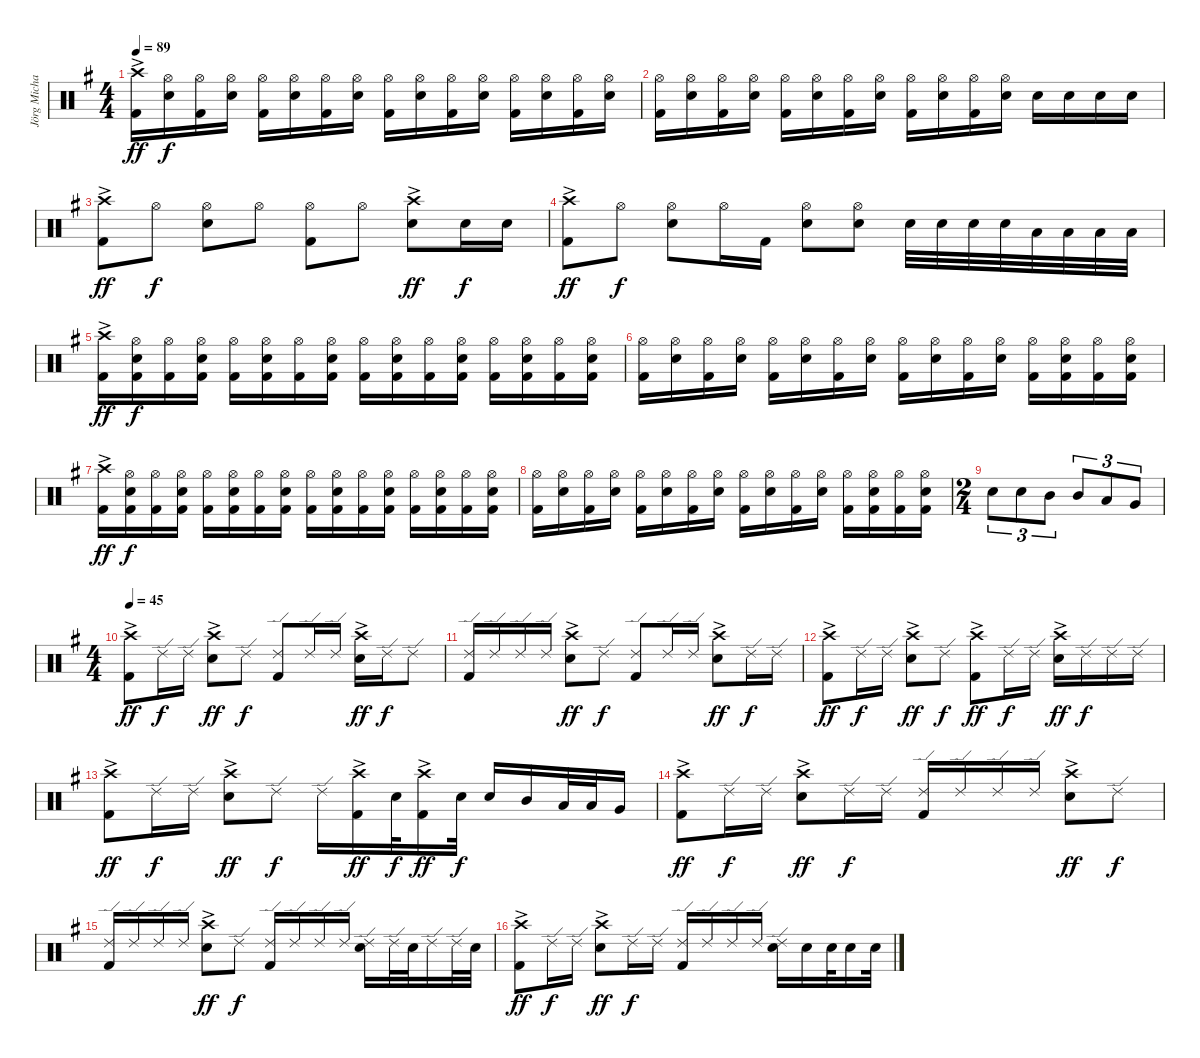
\track ("Jörg Michael" "Jörg Micha") {instrument percussion}
\staff {score}
\articulation defaults
\ts (4 4)
\tempo 89
\clef neutral
\ks g
("Crash high (hit)"{ac} "Kick (hit) 2"{ac}).16{dy ff} ("Hi-Hat (open)" "Electric Snare (hit)").16{dy f} ("Hi-Hat (open)" "Kick (hit) 2").16 ("Hi-Hat (open)" "Electric Snare (hit)").16 ("Hi-Hat (open)" "Kick (hit) 2").16 ("Hi-Hat (open)" "Electric Snare (hit)").16 ("Hi-Hat (open)" "Kick (hit) 2").16 ("Hi-Hat (open)" "Electric Snare (hit)").16 ("Hi-Hat (open)" "Kick (hit) 2").16 ("Hi-Hat (open)" "Electric Snare (hit)").16 ("Hi-Hat (open)" "Kick (hit) 2").16 ("Hi-Hat (open)" "Electric Snare (hit)").16 ("Hi-Hat (open)" "Kick (hit) 2").16 ("Hi-Hat (open)" "Electric Snare (hit)").16 ("Hi-Hat (open)" "Kick (hit) 2").16 ("Hi-Hat (open)" "Electric Snare (hit)").16 |
("Hi-Hat (open)" "Kick (hit) 2").16 ("Hi-Hat (open)" "Electric Snare (hit)").16 ("Hi-Hat (open)" "Kick (hit) 2").16 ("Hi-Hat (open)" "Electric Snare (hit)").16 ("Hi-Hat (open)" "Kick (hit) 2").16 ("Hi-Hat (open)" "Electric Snare (hit)").16 ("Hi-Hat (open)" "Kick (hit) 2").16 ("Hi-Hat (open)" "Electric Snare (hit)").16 ("Hi-Hat (open)" "Kick (hit) 2").16 ("Hi-Hat (open)" "Electric Snare (hit)").16 ("Hi-Hat (open)" "Kick (hit) 2").16 ("Hi-Hat (open)" "Electric Snare (hit)").16 "Electric Snare (hit)".16 "Electric Snare (hit)".16 "Electric Snare (hit)".16 "Electric Snare (hit)".16 |
("Crash high (hit)"{ac} "Kick (hit) 2"{ac}).8{dy ff} "Hi-Hat (open)".8{dy f} ("Hi-Hat (open)" "Electric Snare (hit)").8 "Hi-Hat (open)".8 ("Hi-Hat (open)" "Kick (hit) 2").8 "Hi-Hat (open)".8 ("Crash high (hit)"{ac} "Electric Snare (hit)"{ac}).8{dy ff} "Electric Snare (hit)".16{dy f} "Electric Snare (hit)".16 |
("Crash high (hit)"{ac} "Kick (hit) 2"{ac}).8{dy ff} "Hi-Hat (open)".8{dy f} ("Hi-Hat (open)" "Electric Snare (hit)").8 "Hi-Hat (open)".16 "Kick (hit) 2".16 ("Hi-Hat (open)" "Electric Snare (hit)").8 ("Hi-Hat (open)" "Electric Snare (hit)").8 "Electric Snare (hit)".32 "Electric Snare (hit)".32 "Electric Snare (hit)".32 "Electric Snare (hit)".32 "Low Tom (hit)".32 "Low Tom (hit)".32 "Low Tom (hit)".32 "Low Tom (hit)".32 |
("Crash high (hit)"{ac} "Kick (hit) 2"{ac}).16{dy ff} ("Hi-Hat (open)" "Electric Snare (hit)" "Kick (hit) 2").16{dy f} ("Hi-Hat (open)" "Kick (hit) 2").16 ("Hi-Hat (open)" "Electric Snare (hit)" "Kick (hit) 2").16 ("Hi-Hat (open)" "Kick (hit) 2").16 ("Hi-Hat (open)" "Electric Snare (hit)" "Kick (hit) 2").16 ("Hi-Hat (open)" "Kick (hit) 2").16 ("Hi-Hat (open)" "Electric Snare (hit)" "Kick (hit) 2").16 ("Hi-Hat (open)" "Kick (hit) 2").16 ("Hi-Hat (open)" "Electric Snare (hit)" "Kick (hit) 2").16 ("Hi-Hat (open)" "Kick (hit) 2").16 ("Hi-Hat (open)" "Electric Snare (hit)" "Kick (hit) 2").16 ("Hi-Hat (open)" "Kick (hit) 2").16 ("Hi-Hat (open)" "Electric Snare (hit)" "Kick (hit) 2").16 ("Hi-Hat (open)" "Kick (hit) 2").16 ("Hi-Hat (open)" "Electric Snare (hit)" "Kick (hit) 2").16 |
("Hi-Hat (open)" "Kick (hit) 2").16 ("Hi-Hat (open)" "Electric Snare (hit)").16 ("Hi-Hat (open)" "Kick (hit) 2").16 ("Hi-Hat (open)" "Electric Snare (hit)").16 ("Hi-Hat (open)" "Kick (hit) 2").16 ("Hi-Hat (open)" "Electric Snare (hit)").16 ("Hi-Hat (open)" "Kick (hit) 2").16 ("Hi-Hat (open)" "Electric Snare (hit)").16 ("Hi-Hat (open)" "Kick (hit) 2").16 ("Hi-Hat (open)" "Electric Snare (hit)").16 ("Hi-Hat (open)" "Kick (hit) 2").16 ("Hi-Hat (open)" "Electric Snare (hit)").16 ("Hi-Hat (open)" "Kick (hit) 2").16 ("Hi-Hat (open)" "Kick (hit) 2" "Electric Snare (hit)").16 ("Hi-Hat (open)" "Kick (hit) 2").16 ("Hi-Hat (open)" "Kick (hit) 2" "Electric Snare (hit)").16 |
("Crash high (hit)"{ac} "Kick (hit) 2"{ac}).16{dy ff} ("Hi-Hat (open)" "Electric Snare (hit)" "Kick (hit) 2").16{dy f} ("Hi-Hat (open)" "Kick (hit) 2").16 ("Hi-Hat (open)" "Electric Snare (hit)" "Kick (hit) 2").16 ("Hi-Hat (open)" "Kick (hit) 2").16 ("Hi-Hat (open)" "Electric Snare (hit)" "Kick (hit) 2").16 ("Hi-Hat (open)" "Kick (hit) 2").16 ("Hi-Hat (open)" "Electric Snare (hit)" "Kick (hit) 2").16 ("Hi-Hat (open)" "Kick (hit) 2").16 ("Hi-Hat (open)" "Electric Snare (hit)" "Kick (hit) 2").16 ("Hi-Hat (open)" "Kick (hit) 2").16 ("Hi-Hat (open)" "Electric Snare (hit)" "Kick (hit) 2").16 ("Hi-Hat (open)" "Kick (hit) 2").16 ("Hi-Hat (open)" "Electric Snare (hit)" "Kick (hit) 2").16 ("Hi-Hat (open)" "Kick (hit) 2").16 ("Hi-Hat (open)" "Electric Snare (hit)" "Kick (hit) 2").16 |
("Hi-Hat (open)" "Kick (hit) 2").16 ("Hi-Hat (open)" "Electric Snare (hit)").16 ("Hi-Hat (open)" "Kick (hit) 2").16 ("Hi-Hat (open)" "Electric Snare (hit)").16 ("Hi-Hat (open)" "Kick (hit) 2").16 ("Hi-Hat (open)" "Electric Snare (hit)").16 ("Hi-Hat (open)" "Kick (hit) 2").16 ("Hi-Hat (open)" "Electric Snare (hit)").16 ("Hi-Hat (open)" "Kick (hit) 2").16 ("Hi-Hat (open)" "Electric Snare (hit)").16 ("Hi-Hat (open)" "Kick (hit) 2").16 ("Hi-Hat (open)" "Electric Snare (hit)").16 ("Hi-Hat (open)" "Kick (hit) 2").16 ("Hi-Hat (open)" "Kick (hit) 2" "Electric Snare (hit)").16 ("Hi-Hat (open)" "Kick (hit) 2").16 ("Hi-Hat (open)" "Kick (hit) 2" "Electric Snare (hit)").16 |
\ts (2 4)
"Electric Snare (hit)".8{tu (3 2)} "Electric Snare (hit)".8{tu (3 2)} "Mid Tom (hit)".8{tu (3 2)} "Mid Tom (hit)".8{tu (3 2)} "Low Tom (hit)".8{tu (3 2)} "Very Low Tom (hit)".8{tu (3 2)} |
\ts (4 4)
\tempo 45
("Crash high (hit)"{ac} "Kick (hit) 2"{ac}).8{dy ff} "Ride (edge) 2".16{dy f} "Ride (edge) 2".16 ("Electric Snare (hit)" "Crash high (hit)"{ac}).8{dy ff} "Ride (edge) 2".8{dy f} ("Ride (edge) 2" "Kick (hit) 2").8 "Ride (edge) 2".16 "Ride (edge) 2".16 ("Crash high (hit)"{ac} "Electric Snare (hit)"{ac}).16{dy ff} "Ride (edge) 2".16{dy f} "Ride (edge) 2".8 |
("Ride (edge) 2" "Kick (hit) 2").16 "Ride (edge) 2".16 "Ride (edge) 2".16 "Ride (edge) 2".16 ("Crash high (hit)"{ac} "Electric Snare (hit)"{ac}).8{dy ff} "Ride (edge) 2".8{dy f} ("Ride (edge) 2" "Kick (hit) 2").8 "Ride (edge) 2".16 "Ride (edge) 2".16 ("Crash high (hit)"{ac} "Electric Snare (hit)"{ac}).8{dy ff} "Ride (edge) 2".16{dy f} "Ride (edge) 2".16 |
("Crash high (hit)"{ac} "Kick (hit) 2"{ac}).8{dy ff} "Ride (edge) 2".16{dy f} "Ride (edge) 2".16 ("Electric Snare (hit)" "Crash high (hit)"{ac}).8{dy ff} "Ride (edge) 2".8{dy f} ("Crash high (hit)"{ac} "Kick (hit) 2"{ac}).8{dy ff} "Ride (edge) 2".16{dy f} "Ride (edge) 2".16 ("Crash high (hit)"{ac} "Electric Snare (hit)"{ac}).16{dy ff} "Ride (edge) 2".16{dy f} "Ride (edge) 2".16 "Ride (edge) 2".16 |
("Crash high (hit)"{ac} "Kick (hit) 2"{ac}).8{dy ff} "Ride (edge) 2".16{dy f} "Ride (edge) 2".16 ("Electric Snare (hit)" "Crash high (hit)"{ac}).8{dy ff} "Ride (edge) 2".8{dy f} "Ride (edge) 2".16 ("Crash high (hit)"{ac} "Kick (hit) 2"{ac}).16{dy ff} "Electric Snare (hit)".32{dy f} ("Crash high (hit)"{ac} "Kick (hit) 2"{ac}).16{dy ff} "Electric Snare (hit)".32{dy f} "Electric Snare (hit)".16 "Mid Tom (hit)".16 "Low Tom (hit)".32 "Low Tom (hit)".32 "Very Low Tom (hit)".16 |
("Crash high (hit)"{ac} "Kick (hit) 2"{ac}).8{dy ff} "Ride (edge) 2".16{dy f} "Ride (edge) 2".16 ("Electric Snare (hit)" "Crash high (hit)"{ac}).8{dy ff} "Ride (edge) 2".16{dy f} "Ride (edge) 2".16 ("Ride (edge) 2" "Kick (hit) 2").16 "Ride (edge) 2".16 "Ride (edge) 2".16 "Ride (edge) 2".16 ("Crash high (hit)"{ac} "Electric Snare (hit)"{ac}).8{dy ff} "Ride (edge) 2".8{dy f} |
("Ride (edge) 2" "Kick (hit) 2").16 "Ride (edge) 2".16 "Ride (edge) 2".16 "Ride (edge) 2".16 ("Crash high (hit)"{ac} "Electric Snare (hit)"{ac}).8{dy ff} "Ride (edge) 2".8{dy f} ("Ride (edge) 2" "Kick (hit) 2").16 "Ride (edge) 2".16 "Ride (edge) 2".16 "Ride (edge) 2".16 ("Ride (edge) 2" "Electric Snare (hit)").16 "Ride (edge) 2".32 "Electric Snare (hit)".32 "Ride (edge) 2".16 "Ride (edge) 2".32 "Electric Snare (hit)".32 |
("Crash high (hit)"{ac} "Kick (hit) 2"{ac}).8{dy ff} "Ride (edge) 2".16{dy f} "Ride (edge) 2".16 ("Electric Snare (hit)" "Crash high (hit)"{ac}).8{dy ff} "Ride (edge) 2".16{dy f} "Ride (edge) 2".16 ("Ride (edge) 2" "Kick (hit) 2").16 "Ride (edge) 2".16 "Ride (edge) 2".16 "Ride (edge) 2".16 ("Ride (edge) 2" "Electric Snare (hit)").16 "Electric Snare (hit)".16 "Electric Snare (hit)".32 "Electric Snare (hit)".16 "Electric Snare (hit)".32
